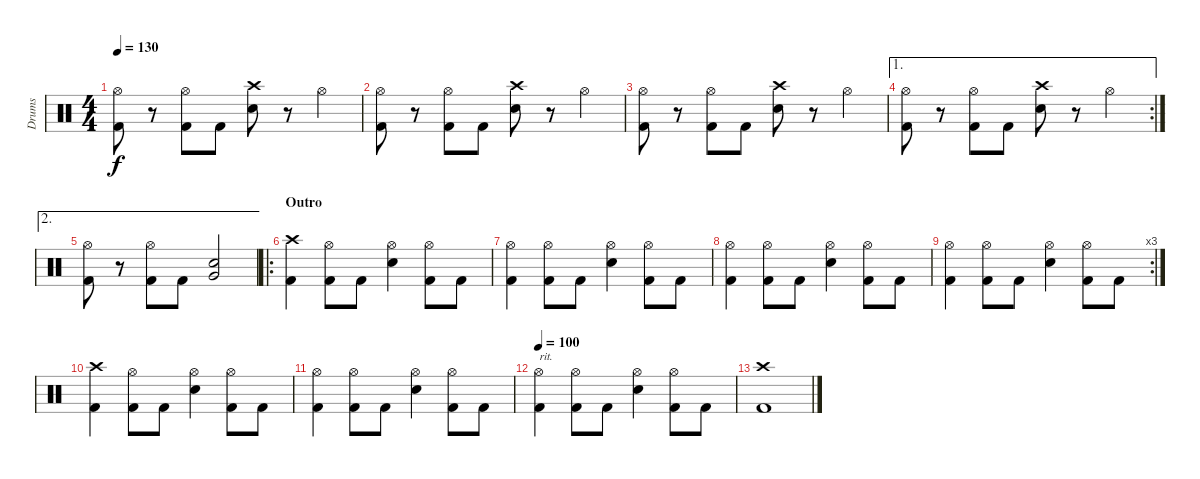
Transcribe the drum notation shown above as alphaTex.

\track ("Drums" "Drums") {instrument percussion}
\staff {score}
\articulation defaults
\ts (4 4)
\tempo 130
\clef neutral
\ks c
("Hi-Hat (open)" "Kick (hit) 2").8{dy f} r.8 ("Hi-Hat (open)" "Kick (hit) 2").8 "Kick (hit) 2".8 ("Crash high (hit)" "Electric Snare (hit)").8 r.8 "Hi-Hat (open)".4 |
("Hi-Hat (open)" "Kick (hit) 2").8 r.8 ("Hi-Hat (open)" "Kick (hit) 2").8 "Kick (hit) 2".8 ("Crash high (hit)" "Electric Snare (hit)").8 r.8 "Hi-Hat (open)".4 |
("Hi-Hat (open)" "Kick (hit) 2").8 r.8 ("Hi-Hat (open)" "Kick (hit) 2").8 "Kick (hit) 2".8 ("Crash high (hit)" "Electric Snare (hit)").8 r.8 "Hi-Hat (open)".4 |
\ae 1
\rc 2
("Hi-Hat (open)" "Kick (hit) 2").8 r.8 ("Hi-Hat (open)" "Kick (hit) 2").8 "Kick (hit) 2".8 ("Crash high (hit)" "Electric Snare (hit)").8 r.8 "Hi-Hat (open)".4 |
\ae 2
("Hi-Hat (open)" "Kick (hit) 2").8 r.8 ("Hi-Hat (open)" "Kick (hit) 2").8 "Kick (hit) 2".8 ("Very Low Tom (hit)" "Electric Snare (hit)").2 |
\ro
\section ("" "Outro")
("Crash high (hit)" "Kick (hit) 2").4 ("Hi-Hat (open)" "Kick (hit) 2").8 "Kick (hit) 2".8 ("Hi-Hat (open)" "Electric Snare (hit)").4 ("Hi-Hat (open)" "Kick (hit) 2").8 "Kick (hit) 2".8 |
("Hi-Hat (open)" "Kick (hit) 2").4 ("Hi-Hat (open)" "Kick (hit) 2").8 "Kick (hit) 2".8 ("Hi-Hat (open)" "Electric Snare (hit)").4 ("Hi-Hat (open)" "Kick (hit) 2").8 "Kick (hit) 2".8 |
("Hi-Hat (open)" "Kick (hit) 2").4 ("Hi-Hat (open)" "Kick (hit) 2").8 "Kick (hit) 2".8 ("Hi-Hat (open)" "Electric Snare (hit)").4 ("Hi-Hat (open)" "Kick (hit) 2").8 "Kick (hit) 2".8 |
\rc 3
("Hi-Hat (open)" "Kick (hit) 2").4 ("Hi-Hat (open)" "Kick (hit) 2").8 "Kick (hit) 2".8 ("Hi-Hat (open)" "Electric Snare (hit)").4 ("Hi-Hat (open)" "Kick (hit) 2").8 "Kick (hit) 2".8 |
("Crash high (hit)" "Kick (hit) 2").4 ("Hi-Hat (open)" "Kick (hit) 2").8 "Kick (hit) 2".8 ("Hi-Hat (open)" "Electric Snare (hit)").4 ("Hi-Hat (open)" "Kick (hit) 2").8 "Kick (hit) 2".8 |
("Hi-Hat (open)" "Kick (hit) 2").4 ("Hi-Hat (open)" "Kick (hit) 2").8 "Kick (hit) 2".8 ("Hi-Hat (open)" "Electric Snare (hit)").4 ("Hi-Hat (open)" "Kick (hit) 2").8 "Kick (hit) 2".8 |
\tempo 100
("Hi-Hat (open)" "Kick (hit) 2").4{txt "rit."} ("Hi-Hat (open)" "Kick (hit) 2").8 "Kick (hit) 2".8 ("Hi-Hat (open)" "Electric Snare (hit)").4 ("Hi-Hat (open)" "Kick (hit) 2").8 "Kick (hit) 2".8 |
("Crash high (hit)" "Kick (hit) 2").1
